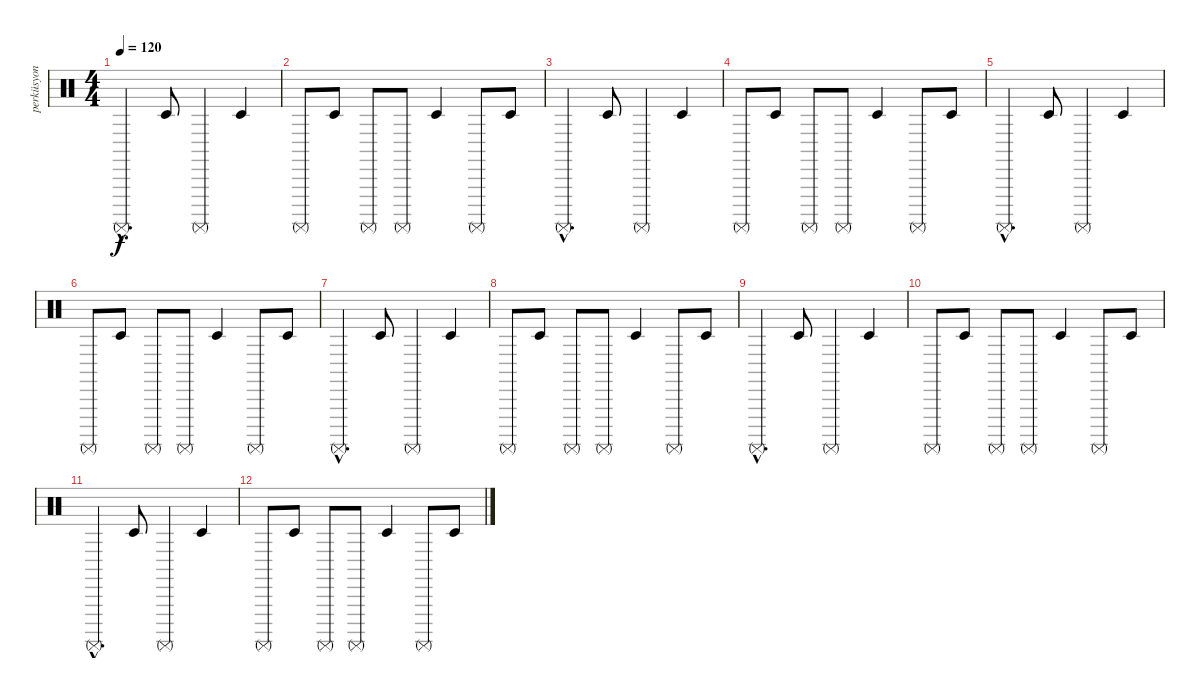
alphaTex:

\track ("perküsyon" "perküsyon") {instrument percussion}
\staff {score}
\articulation defaults
\ts (4 4)
\tempo 120
\clef neutral
\ks c "Surdo (mute)"{hac}.4{d dy f} "Timbale low (hit)".8 "Surdo (mute)".4 "Timbale low (hit)".4
|
"Surdo (mute)".8 "Timbale low (hit)".8 "Surdo (mute)".8 "Surdo (mute)".8 "Timbale low (hit)".4 "Surdo (mute)".8 "Timbale low (hit)".8 |
"Surdo (mute)"{hac}.4{d} "Timbale low (hit)".8 "Surdo (mute)".4 "Timbale low (hit)".4 |
"Surdo (mute)".8 "Timbale low (hit)".8 "Surdo (mute)".8 "Surdo (mute)".8 "Timbale low (hit)".4 "Surdo (mute)".8 "Timbale low (hit)".8 |
"Surdo (mute)"{hac}.4{d} "Timbale low (hit)".8 "Surdo (mute)".4 "Timbale low (hit)".4 |
"Surdo (mute)".8 "Timbale low (hit)".8 "Surdo (mute)".8 "Surdo (mute)".8 "Timbale low (hit)".4 "Surdo (mute)".8 "Timbale low (hit)".8 |
"Surdo (mute)"{hac}.4{d} "Timbale low (hit)".8 "Surdo (mute)".4 "Timbale low (hit)".4 |
"Surdo (mute)".8 "Timbale low (hit)".8 "Surdo (mute)".8 "Surdo (mute)".8 "Timbale low (hit)".4 "Surdo (mute)".8 "Timbale low (hit)".8 |
"Surdo (mute)"{hac}.4{d} "Timbale low (hit)".8 "Surdo (mute)".4 "Timbale low (hit)".4 |
"Surdo (mute)".8 "Timbale low (hit)".8 "Surdo (mute)".8 "Surdo (mute)".8 "Timbale low (hit)".4 "Surdo (mute)".8 "Timbale low (hit)".8 |
"Surdo (mute)"{hac}.4{d} "Timbale low (hit)".8 "Surdo (mute)".4 "Timbale low (hit)".4 |
"Surdo (mute)".8 "Timbale low (hit)".8 "Surdo (mute)".8 "Surdo (mute)".8 "Timbale low (hit)".4 "Surdo (mute)".8 "Timbale low (hit)".8
